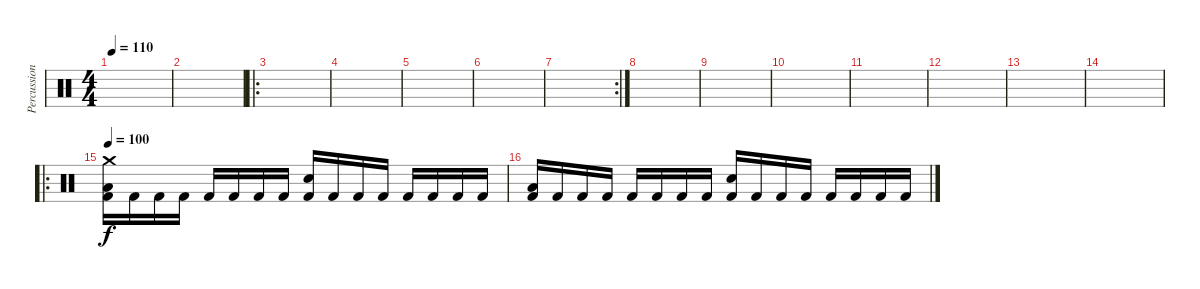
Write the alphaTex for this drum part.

\track ("Percussion" "Percussion") {instrument percussion}
\staff {score}
\articulation defaults
\ts (4 4)
\tempo 110
\clef neutral
\ks c
|
|
\ro
|
|
|
|
\rc 2
|
|
|
|
|
|
|
|
\ro
\tempo 100
("Crash medium (hit)" "Low Tom (hit)" "Kick (hit) 2").16 "Kick (hit) 2".16 "Kick (hit) 2".16 "Kick (hit) 2".16 "Kick (hit) 2".16 "Kick (hit) 2".16 "Kick (hit) 2".16 "Kick (hit) 2".16 ("Electric Snare (hit)" "Kick (hit) 2").16 "Kick (hit) 2".16 "Kick (hit) 2".16 "Kick (hit) 2".16 "Kick (hit) 2".16 "Kick (hit) 2".16 "Kick (hit) 2".16 "Kick (hit) 2".16 |
("Low Tom (hit)" "Kick (hit) 2").16 "Kick (hit) 2".16 "Kick (hit) 2".16 "Kick (hit) 2".16 "Kick (hit) 2".16 "Kick (hit) 2".16 "Kick (hit) 2".16 "Kick (hit) 2".16 ("Electric Snare (hit)" "Kick (hit) 2").16 "Kick (hit) 2".16 "Kick (hit) 2".16 "Kick (hit) 2".16 "Kick (hit) 2".16 "Kick (hit) 2".16 "Kick (hit) 2".16 "Kick (hit) 2".16
